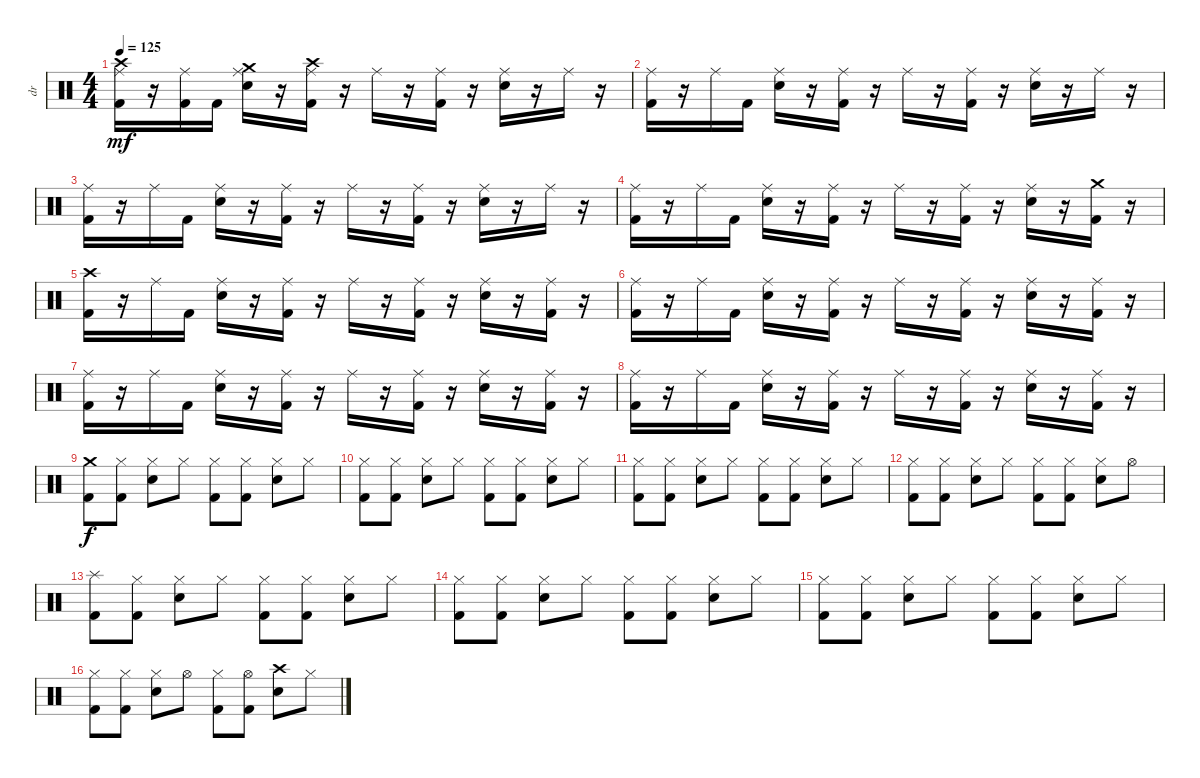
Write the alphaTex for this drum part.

\track ("dr" "dr") {instrument percussion}
\staff {score}
\articulation defaults
\ts (4 4)
\tempo 125
\clef neutral
\ks c
("Crash high (hit)" "Ride (middle)" "Kick (hit) 2").16{dy mf} r.16 ("Ride (middle)" "Kick (hit) 2").16 "Kick (hit) 2".16 ("Crash medium (hit)" "Ride (middle)" "Snare (hit) 2").16 r.16 ("Crash high (hit)" "Ride (middle)" "Kick (hit) 2").16 r.16 "Ride (middle)".16 r.16 ("Ride (middle)" "Kick (hit) 2").16 r.16 ("Ride (middle)" "Snare (hit) 2").16 r.16 "Ride (middle)".16 r.16 |
("Ride (middle)" "Kick (hit) 2").16 r.16 "Ride (middle)".16 "Kick (hit) 2".16 ("Ride (middle)" "Snare (hit) 2").16 r.16 ("Ride (middle)" "Kick (hit) 2").16 r.16 "Ride (middle)".16 r.16 ("Ride (middle)" "Kick (hit) 2").16 r.16 ("Ride (middle)" "Snare (hit) 2").16 r.16 "Ride (middle)".16 r.16 |
("Ride (middle)" "Kick (hit) 2").16 r.16 "Ride (middle)".16 "Kick (hit) 2".16 ("Ride (middle)" "Snare (hit) 2").16 r.16 ("Ride (middle)" "Kick (hit) 2").16 r.16 "Ride (middle)".16 r.16 ("Ride (middle)" "Kick (hit) 2").16 r.16 ("Ride (middle)" "Snare (hit) 2").16 r.16 "Ride (middle)".16 r.16 |
("Ride (middle)" "Kick (hit) 2").16 r.16 "Ride (middle)".16 "Kick (hit) 2".16 ("Ride (middle)" "Snare (hit) 2").16 r.16 ("Ride (middle)" "Kick (hit) 2").16 r.16 "Ride (middle)".16 r.16 ("Ride (middle)" "Kick (hit) 2").16 r.16 ("Ride (middle)" "Snare (hit) 2").16 r.16 ("Crash medium (hit)" "Kick (hit) 2").16 r.16 |
("Crash high (hit)" "Kick (hit) 2").16 r.16 "Ride (middle)".16 "Kick (hit) 2".16 ("Ride (middle)" "Snare (hit) 2").16 r.16 ("Ride (middle)" "Kick (hit) 2").16 r.16 "Ride (middle)".16 r.16 ("Ride (middle)" "Kick (hit) 2").16 r.16 ("Ride (middle)" "Snare (hit) 2").16 r.16 ("Ride (middle)" "Kick (hit) 2").16 r.16 |
("Ride (middle)" "Kick (hit) 2").16 r.16 "Ride (middle)".16 "Kick (hit) 2".16 ("Ride (middle)" "Snare (hit) 2").16 r.16 ("Ride (middle)" "Kick (hit) 2").16 r.16 "Ride (middle)".16 r.16 ("Ride (middle)" "Kick (hit) 2").16 r.16 ("Ride (middle)" "Snare (hit) 2").16 r.16 ("Ride (middle)" "Kick (hit) 2").16 r.16 |
("Ride (middle)" "Kick (hit) 2").16 r.16 "Ride (middle)".16 "Kick (hit) 2".16 ("Ride (middle)" "Snare (hit) 2").16 r.16 ("Ride (middle)" "Kick (hit) 2").16 r.16 "Ride (middle)".16 r.16 ("Ride (middle)" "Kick (hit) 2").16 r.16 ("Ride (middle)" "Snare (hit) 2").16 r.16 ("Ride (middle)" "Kick (hit) 2").16 r.16 |
("Ride (middle)" "Kick (hit) 2").16 r.16 "Ride (middle)".16 "Kick (hit) 2".16 ("Ride (middle)" "Snare (hit) 2").16 r.16 ("Ride (middle)" "Kick (hit) 2").16 r.16 "Ride (middle)".16 r.16 ("Ride (middle)" "Kick (hit) 2").16 r.16 ("Ride (middle)" "Snare (hit) 2").16 r.16 ("Ride (middle)" "Kick (hit) 2").16 r.16 |
("Crash medium (hit)" "Kick (hit) 2").8{dy f} ("Hi-Hat (closed)" "Kick (hit) 2").8 ("Hi-Hat (closed)" "Snare (hit) 2").8 "Hi-Hat (closed)".8 ("Hi-Hat (closed)" "Kick (hit) 2").8 ("Hi-Hat (closed)" "Kick (hit) 2").8 ("Hi-Hat (closed)" "Snare (hit) 2").8 "Hi-Hat (closed)".8 |
("Hi-Hat (closed)" "Kick (hit) 2").8 ("Hi-Hat (closed)" "Kick (hit) 2").8 ("Hi-Hat (closed)" "Snare (hit) 2").8 "Hi-Hat (closed)".8 ("Hi-Hat (closed)" "Kick (hit) 2").8 ("Hi-Hat (closed)" "Kick (hit) 2").8 ("Hi-Hat (closed)" "Snare (hit) 2").8 "Hi-Hat (closed)".8 |
("Hi-Hat (closed)" "Kick (hit) 2").8 ("Hi-Hat (closed)" "Kick (hit) 2").8 ("Hi-Hat (closed)" "Snare (hit) 2").8 "Hi-Hat (closed)".8 ("Hi-Hat (closed)" "Kick (hit) 2").8 ("Hi-Hat (closed)" "Kick (hit) 2").8 ("Hi-Hat (closed)" "Snare (hit) 2").8 "Hi-Hat (closed)".8 |
("Hi-Hat (closed)" "Kick (hit) 2").8 ("Hi-Hat (closed)" "Kick (hit) 2").8 ("Hi-Hat (closed)" "Snare (hit) 2").8 "Hi-Hat (closed)".8 ("Hi-Hat (closed)" "Kick (hit) 2").8 ("Hi-Hat (closed)" "Kick (hit) 2").8 ("Hi-Hat (closed)" "Snare (hit) 2").8 "Hi-Hat (open)".8 |
("Splash (hit)" "Kick (hit) 2").8 ("Hi-Hat (closed)" "Kick (hit) 2").8 ("Hi-Hat (closed)" "Snare (hit) 2").8 "Hi-Hat (closed)".8 ("Hi-Hat (closed)" "Kick (hit) 2").8 ("Hi-Hat (closed)" "Kick (hit) 2").8 ("Hi-Hat (closed)" "Snare (hit) 2").8 "Hi-Hat (closed)".8 |
("Hi-Hat (closed)" "Kick (hit) 2").8 ("Hi-Hat (closed)" "Kick (hit) 2").8 ("Hi-Hat (closed)" "Snare (hit) 2").8 "Hi-Hat (closed)".8 ("Hi-Hat (closed)" "Kick (hit) 2").8 ("Hi-Hat (closed)" "Kick (hit) 2").8 ("Hi-Hat (closed)" "Snare (hit) 2").8 "Hi-Hat (closed)".8 |
("Hi-Hat (closed)" "Kick (hit) 2").8 ("Hi-Hat (closed)" "Kick (hit) 2").8 ("Hi-Hat (closed)" "Snare (hit) 2").8 "Hi-Hat (closed)".8 ("Hi-Hat (closed)" "Kick (hit) 2").8 ("Hi-Hat (closed)" "Kick (hit) 2").8 ("Hi-Hat (closed)" "Snare (hit) 2").8 "Hi-Hat (closed)".8 |
("Hi-Hat (closed)" "Kick (hit) 2").8 ("Hi-Hat (closed)" "Kick (hit) 2").8 ("Hi-Hat (closed)" "Snare (hit) 2").8 "Hi-Hat (open)".8 ("Hi-Hat (closed)" "Kick (hit) 2").8 ("Hi-Hat (open)" "Kick (hit) 2").8 ("Crash high (hit)" "Snare (hit) 2").8 "Hi-Hat (closed)".8
